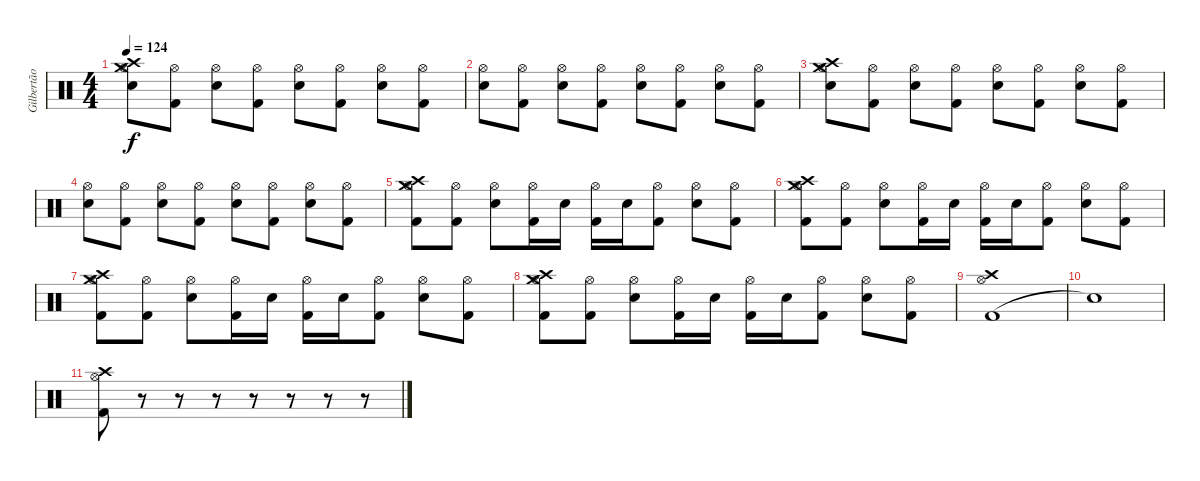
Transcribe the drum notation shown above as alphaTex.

\track ("Gilbertão (Drums)" "Gilbertão ") {instrument percussion}
\staff {score}
\articulation defaults
\ts (4 4)
\tempo 124
\clef neutral
\ks c
("Hi-Hat (open)" "Snare (hit) 2" "Crash medium (hit)" "Crash high (hit)").8{dy f} ("Hi-Hat (open)" "Kick (hit) 2").8 ("Hi-Hat (open)" "Snare (hit) 2").8 ("Hi-Hat (open)" "Kick (hit) 2").8 ("Hi-Hat (open)" "Snare (hit) 2").8 ("Hi-Hat (open)" "Kick (hit) 2").8 ("Hi-Hat (open)" "Snare (hit) 2").8 ("Hi-Hat (open)" "Kick (hit) 2").8 |
("Hi-Hat (open)" "Snare (hit) 2").8 ("Hi-Hat (open)" "Kick (hit) 2").8 ("Hi-Hat (open)" "Snare (hit) 2").8 ("Hi-Hat (open)" "Kick (hit) 2").8 ("Hi-Hat (open)" "Snare (hit) 2").8 ("Hi-Hat (open)" "Kick (hit) 2").8 ("Hi-Hat (open)" "Snare (hit) 2").8 ("Hi-Hat (open)" "Kick (hit) 2").8 |
("Hi-Hat (open)" "Snare (hit) 2" "Crash medium (hit)" "Crash high (hit)").8 ("Hi-Hat (open)" "Kick (hit) 2").8 ("Hi-Hat (open)" "Snare (hit) 2").8 ("Hi-Hat (open)" "Kick (hit) 2").8 ("Hi-Hat (open)" "Snare (hit) 2").8 ("Hi-Hat (open)" "Kick (hit) 2").8 ("Hi-Hat (open)" "Snare (hit) 2").8 ("Hi-Hat (open)" "Kick (hit) 2").8 |
("Hi-Hat (open)" "Snare (hit) 2").8 ("Hi-Hat (open)" "Kick (hit) 2").8 ("Hi-Hat (open)" "Snare (hit) 2").8 ("Hi-Hat (open)" "Kick (hit) 2").8 ("Hi-Hat (open)" "Snare (hit) 2").8 ("Hi-Hat (open)" "Kick (hit) 2").8 ("Hi-Hat (open)" "Snare (hit) 2").8 ("Hi-Hat (open)" "Kick (hit) 2").8 |
("Hi-Hat (open)" "Kick (hit) 2" "Crash medium (hit)" "Crash high (hit)").8 ("Hi-Hat (open)" "Kick (hit) 2").8 ("Hi-Hat (open)" "Snare (hit) 2").8 ("Hi-Hat (open)" "Kick (hit) 2").16 "Snare (hit) 2".16 ("Hi-Hat (open)" "Kick (hit) 2").16 "Snare (hit) 2".16 ("Hi-Hat (open)" "Kick (hit) 2").8 ("Hi-Hat (open)" "Snare (hit) 2").8 ("Hi-Hat (open)" "Kick (hit) 2").8 |
("Hi-Hat (open)" "Kick (hit) 2" "Crash medium (hit)" "Crash high (hit)").8 ("Hi-Hat (open)" "Kick (hit) 2").8 ("Hi-Hat (open)" "Snare (hit) 2").8 ("Hi-Hat (open)" "Kick (hit) 2").16 "Snare (hit) 2".16 ("Hi-Hat (open)" "Kick (hit) 2").16 "Snare (hit) 2".16 ("Hi-Hat (open)" "Kick (hit) 2").8 ("Hi-Hat (open)" "Snare (hit) 2").8 ("Hi-Hat (open)" "Kick (hit) 2").8 |
("Hi-Hat (open)" "Kick (hit) 2" "Crash medium (hit)" "Crash high (hit)").8 ("Hi-Hat (open)" "Kick (hit) 2").8 ("Hi-Hat (open)" "Snare (hit) 2").8 ("Hi-Hat (open)" "Kick (hit) 2").16 "Snare (hit) 2".16 ("Hi-Hat (open)" "Kick (hit) 2").16 "Snare (hit) 2".16 ("Hi-Hat (open)" "Kick (hit) 2").8 ("Hi-Hat (open)" "Snare (hit) 2").8 ("Hi-Hat (open)" "Kick (hit) 2").8 |
("Hi-Hat (open)" "Kick (hit) 2" "Crash medium (hit)" "Crash high (hit)").8 ("Hi-Hat (open)" "Kick (hit) 2").8 ("Hi-Hat (open)" "Snare (hit) 2").8 ("Hi-Hat (open)" "Kick (hit) 2").16 "Snare (hit) 2".16 ("Hi-Hat (open)" "Kick (hit) 2").16 "Snare (hit) 2".16 ("Hi-Hat (open)" "Kick (hit) 2").8 ("Hi-Hat (open)" "Snare (hit) 2").8 ("Hi-Hat (open)" "Kick (hit) 2").8 |
("Kick (hit) 2" "Hi-Hat (open)" "Crash high (hit)").1 |
"Snare (hit)"{t}.1 |
("Kick (hit) 2" "Hi-Hat (open)" "Crash high (hit)").8 r.8 r.8 r.8 r.8 r.8 r.8 r.8
